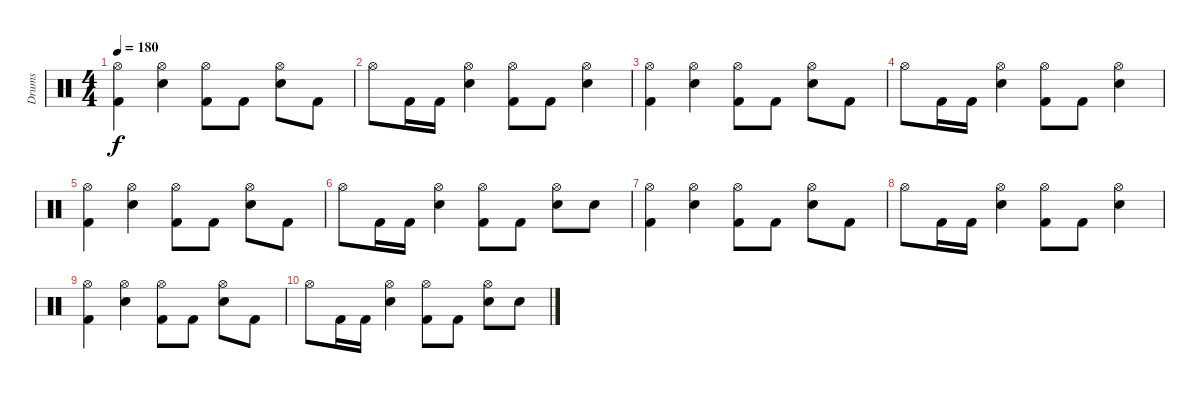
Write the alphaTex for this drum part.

\track ("Drums" "Drums") {instrument percussion}
\staff {score}
\articulation defaults
\ts (4 4)
\tempo 180
\clef neutral
\ks c
("Hi-Hat (open)" "Kick (hit) 2").4{dy f} ("Hi-Hat (open)" "Snare (hit) 2").4 ("Hi-Hat (open)" "Kick (hit) 2").8 "Kick (hit) 2".8 ("Hi-Hat (open)" "Snare (hit) 2").8 "Kick (hit) 2".8 |
"Hi-Hat (open)".8 "Kick (hit) 2".16 "Kick (hit) 2".16 ("Hi-Hat (open)" "Snare (hit) 2").4 ("Hi-Hat (open)" "Kick (hit) 2").8 "Kick (hit) 2".8 ("Hi-Hat (open)" "Snare (hit) 2").4 |
("Hi-Hat (open)" "Kick (hit) 2").4 ("Hi-Hat (open)" "Snare (hit) 2").4 ("Hi-Hat (open)" "Kick (hit) 2").8 "Kick (hit) 2".8 ("Hi-Hat (open)" "Snare (hit) 2").8 "Kick (hit) 2".8 |
"Hi-Hat (open)".8 "Kick (hit) 2".16 "Kick (hit) 2".16 ("Hi-Hat (open)" "Snare (hit) 2").4 ("Hi-Hat (open)" "Kick (hit) 2").8 "Kick (hit) 2".8 ("Hi-Hat (open)" "Snare (hit) 2").4 |
("Hi-Hat (open)" "Kick (hit) 2").4 ("Hi-Hat (open)" "Snare (hit) 2").4 ("Hi-Hat (open)" "Kick (hit) 2").8 "Kick (hit) 2".8 ("Hi-Hat (open)" "Snare (hit) 2").8 "Kick (hit) 2".8 |
"Hi-Hat (open)".8 "Kick (hit) 2".16 "Kick (hit) 2".16 ("Hi-Hat (open)" "Snare (hit) 2").4 ("Hi-Hat (open)" "Kick (hit) 2").8 "Kick (hit) 2".8 ("Hi-Hat (open)" "Snare (hit) 2").8 "Snare (hit) 2".8 |
("Hi-Hat (open)" "Kick (hit) 2").4 ("Hi-Hat (open)" "Snare (hit) 2").4 ("Hi-Hat (open)" "Kick (hit) 2").8 "Kick (hit) 2".8 ("Hi-Hat (open)" "Snare (hit) 2").8 "Kick (hit) 2".8 |
"Hi-Hat (open)".8 "Kick (hit) 2".16 "Kick (hit) 2".16 ("Hi-Hat (open)" "Snare (hit) 2").4 ("Hi-Hat (open)" "Kick (hit) 2").8 "Kick (hit) 2".8 ("Hi-Hat (open)" "Snare (hit) 2").4 |
("Hi-Hat (open)" "Kick (hit) 2").4 ("Hi-Hat (open)" "Snare (hit) 2").4 ("Hi-Hat (open)" "Kick (hit) 2").8 "Kick (hit) 2".8 ("Hi-Hat (open)" "Snare (hit) 2").8 "Kick (hit) 2".8 |
"Hi-Hat (open)".8 "Kick (hit) 2".16 "Kick (hit) 2".16 ("Hi-Hat (open)" "Snare (hit) 2").4 ("Hi-Hat (open)" "Kick (hit) 2").8 "Kick (hit) 2".8 ("Hi-Hat (open)" "Snare (hit) 2").8 "Snare (hit) 2".8
